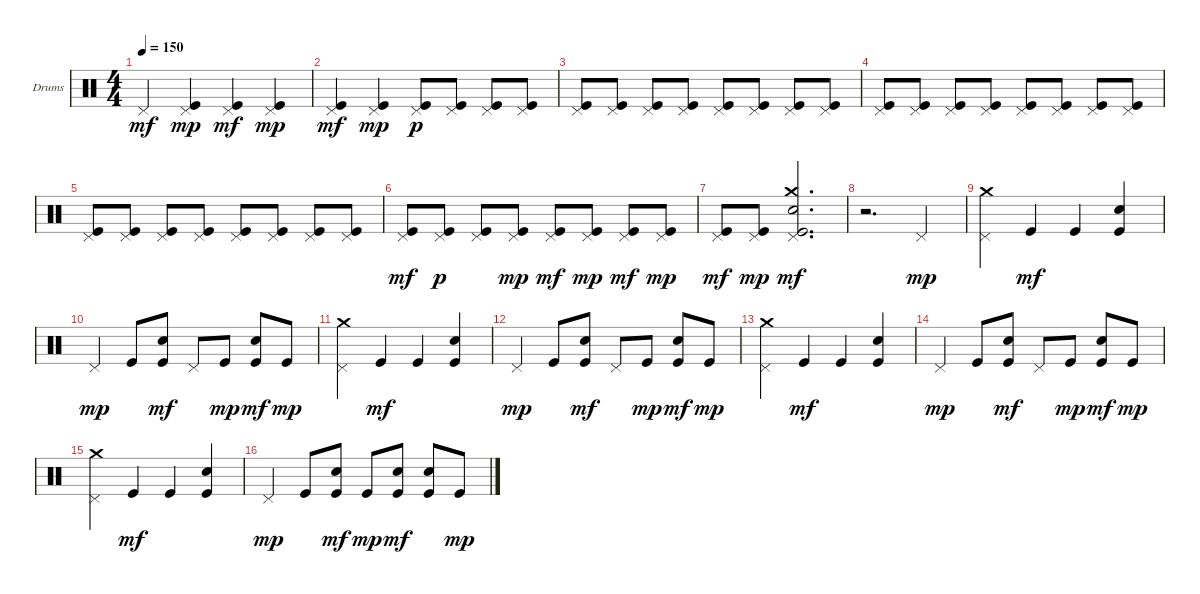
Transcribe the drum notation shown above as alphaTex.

\defaultSystemsLayout 4
\bracketExtendMode groupsimilarinstruments
\firstSystemTrackNameOrientation horizontal
\otherSystemsTrackNameOrientation horizontal
\track ("Е. Кулаков" "Drums") {instrument percussion}
\staff {score}
\articulation defaults
\ts (4 4)
\tempo 150
\clef neutral
\ks c "Pedal Hi-Hat (hit)".4{dy mf}
("Pedal Hi-Hat (hit)" "Kick (hit)").4{dy mp} ("Pedal Hi-Hat (hit)" "Kick (hit)").4{dy mf} ("Pedal Hi-Hat (hit)" "Kick (hit)").4{dy mp} |
("Pedal Hi-Hat (hit)" "Kick (hit)").4{dy mf} ("Pedal Hi-Hat (hit)" "Kick (hit)").4{dy mp} ("Pedal Hi-Hat (hit)" "Kick (hit)").8{dy p} ("Pedal Hi-Hat (hit)" "Kick (hit)").8 ("Pedal Hi-Hat (hit)" "Kick (hit)").8 ("Pedal Hi-Hat (hit)" "Kick (hit)").8 |
("Pedal Hi-Hat (hit)" "Kick (hit)").8 ("Pedal Hi-Hat (hit)" "Kick (hit)").8 ("Pedal Hi-Hat (hit)" "Kick (hit)").8 ("Pedal Hi-Hat (hit)" "Kick (hit)").8 ("Pedal Hi-Hat (hit)" "Kick (hit)").8 ("Pedal Hi-Hat (hit)" "Kick (hit)").8 ("Pedal Hi-Hat (hit)" "Kick (hit)").8 ("Pedal Hi-Hat (hit)" "Kick (hit)").8 |
("Pedal Hi-Hat (hit)" "Kick (hit)").8 ("Pedal Hi-Hat (hit)" "Kick (hit)").8 ("Pedal Hi-Hat (hit)" "Kick (hit)").8 ("Pedal Hi-Hat (hit)" "Kick (hit)").8 ("Pedal Hi-Hat (hit)" "Kick (hit)").8 ("Pedal Hi-Hat (hit)" "Kick (hit)").8 ("Pedal Hi-Hat (hit)" "Kick (hit)").8 ("Pedal Hi-Hat (hit)" "Kick (hit)").8 |
("Pedal Hi-Hat (hit)" "Kick (hit)").8 ("Pedal Hi-Hat (hit)" "Kick (hit)").8 ("Pedal Hi-Hat (hit)" "Kick (hit)").8 ("Pedal Hi-Hat (hit)" "Kick (hit)").8 ("Pedal Hi-Hat (hit)" "Kick (hit)").8 ("Pedal Hi-Hat (hit)" "Kick (hit)").8 ("Pedal Hi-Hat (hit)" "Kick (hit)").8 ("Pedal Hi-Hat (hit)" "Kick (hit)").8 |
("Pedal Hi-Hat (hit)" "Kick (hit)").8{dy mf} ("Pedal Hi-Hat (hit)" "Kick (hit)").8{dy p} ("Pedal Hi-Hat (hit)" "Kick (hit)").8 ("Pedal Hi-Hat (hit)" "Kick (hit)").8{dy mp} ("Pedal Hi-Hat (hit)" "Kick (hit)").8{dy mf} ("Pedal Hi-Hat (hit)" "Kick (hit)").8{dy mp} ("Pedal Hi-Hat (hit)" "Kick (hit)").8{dy mf} ("Pedal Hi-Hat (hit)" "Kick (hit)").8{dy mp} |
("Pedal Hi-Hat (hit)" "Kick (hit)").8{dy mf} ("Pedal Hi-Hat (hit)" "Kick (hit)").8{dy mp} ("Pedal Hi-Hat (hit)" "Kick (hit)" "Crash medium (hit)" "Snare (hit) 2").2{d dy mf} |
r.2{d} "Pedal Hi-Hat (hit)".4{dy mp} |
("Pedal Hi-Hat (hit)" "Crash medium (hit)").4 "Kick (hit)".4{dy mf} "Kick (hit)".4 ("Snare (hit) 2" "Kick (hit)").4 |
"Pedal Hi-Hat (hit)".4{dy mp} "Kick (hit)".8 ("Kick (hit)" "Snare (hit) 2").8{dy mf} "Pedal Hi-Hat (hit)".8 "Kick (hit)".8{dy mp} ("Kick (hit)" "Snare (hit) 2").8{dy mf} "Kick (hit)".8{dy mp} |
("Pedal Hi-Hat (hit)" "Crash medium (hit)").4 "Kick (hit)".4{dy mf} "Kick (hit)".4 ("Snare (hit) 2" "Kick (hit)").4 |
"Pedal Hi-Hat (hit)".4{dy mp} "Kick (hit)".8 ("Kick (hit)" "Snare (hit) 2").8{dy mf} "Pedal Hi-Hat (hit)".8 "Kick (hit)".8{dy mp} ("Kick (hit)" "Snare (hit) 2").8{dy mf} "Kick (hit)".8{dy mp} |
("Pedal Hi-Hat (hit)" "Crash medium (hit)").4 "Kick (hit)".4{dy mf} "Kick (hit)".4 ("Snare (hit) 2" "Kick (hit)").4 |
"Pedal Hi-Hat (hit)".4{dy mp} "Kick (hit)".8 ("Kick (hit)" "Snare (hit) 2").8{dy mf} "Pedal Hi-Hat (hit)".8 "Kick (hit)".8{dy mp} ("Kick (hit)" "Snare (hit) 2").8{dy mf} "Kick (hit)".8{dy mp} |
("Pedal Hi-Hat (hit)" "Crash medium (hit)").4 "Kick (hit)".4{dy mf} "Kick (hit)".4 ("Snare (hit) 2" "Kick (hit)").4 |
"Pedal Hi-Hat (hit)".4{dy mp} "Kick (hit)".8 ("Kick (hit)" "Snare (hit) 2").8{dy mf} "Kick (hit)".8{dy mp} ("Kick (hit)" "Snare (hit) 2").8{dy mf} ("Kick (hit)" "Snare (hit) 2").8 "Kick (hit)".8{dy mp}
